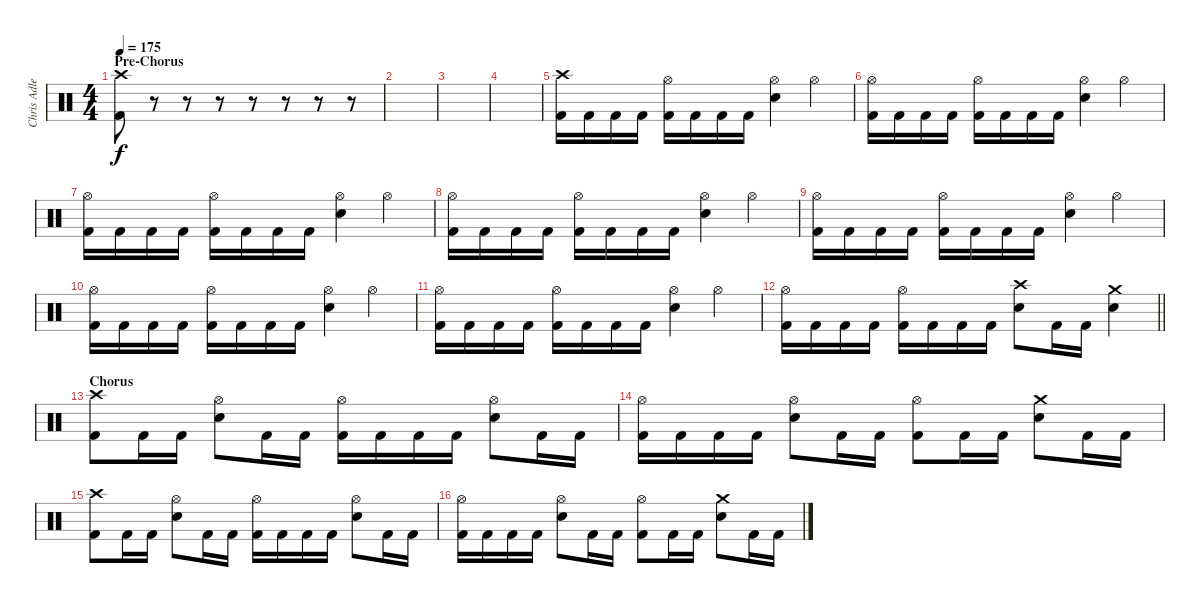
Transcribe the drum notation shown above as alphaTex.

\track ("Chris Adler" "Chris Adle") {instrument percussion}
\staff {score}
\articulation defaults
\ts (4 4)
\section ("" "Pre-Chorus")
\tempo 175
\clef neutral
\ks c
("Crash high (hit)" "Kick (hit) 2").8{dy f} r.8 r.8 r.8 r.8 r.8 r.8 r.8 |
|
|
|
("Crash high (hit)" "Kick (hit) 2").16 "Kick (hit) 2".16 "Kick (hit) 2".16 "Kick (hit) 2".16 ("Hi-Hat (open)" "Kick (hit) 2").16 "Kick (hit) 2".16 "Kick (hit) 2".16 "Kick (hit) 2".16 ("Hi-Hat (open)" "Electric Snare (hit)").4 "Hi-Hat (open)".4 |
("Hi-Hat (open)" "Kick (hit) 2").16 "Kick (hit) 2".16 "Kick (hit) 2".16 "Kick (hit) 2".16 ("Hi-Hat (open)" "Kick (hit) 2").16 "Kick (hit) 2".16 "Kick (hit) 2".16 "Kick (hit) 2".16 ("Hi-Hat (open)" "Electric Snare (hit)").4 "Hi-Hat (open)".4 |
("Hi-Hat (open)" "Kick (hit) 2").16 "Kick (hit) 2".16 "Kick (hit) 2".16 "Kick (hit) 2".16 ("Hi-Hat (open)" "Kick (hit) 2").16 "Kick (hit) 2".16 "Kick (hit) 2".16 "Kick (hit) 2".16 ("Hi-Hat (open)" "Electric Snare (hit)").4 "Hi-Hat (open)".4 |
("Hi-Hat (open)" "Kick (hit) 2").16 "Kick (hit) 2".16 "Kick (hit) 2".16 "Kick (hit) 2".16 ("Hi-Hat (open)" "Kick (hit) 2").16 "Kick (hit) 2".16 "Kick (hit) 2".16 "Kick (hit) 2".16 ("Hi-Hat (open)" "Electric Snare (hit)").4 "Hi-Hat (open)".4 |
("Hi-Hat (open)" "Kick (hit) 2").16 "Kick (hit) 2".16 "Kick (hit) 2".16 "Kick (hit) 2".16 ("Hi-Hat (open)" "Kick (hit) 2").16 "Kick (hit) 2".16 "Kick (hit) 2".16 "Kick (hit) 2".16 ("Hi-Hat (open)" "Electric Snare (hit)").4 "Hi-Hat (open)".4 |
("Hi-Hat (open)" "Kick (hit) 2").16 "Kick (hit) 2".16 "Kick (hit) 2".16 "Kick (hit) 2".16 ("Hi-Hat (open)" "Kick (hit) 2").16 "Kick (hit) 2".16 "Kick (hit) 2".16 "Kick (hit) 2".16 ("Hi-Hat (open)" "Electric Snare (hit)").4 "Hi-Hat (open)".4 |
("Hi-Hat (open)" "Kick (hit) 2").16 "Kick (hit) 2".16 "Kick (hit) 2".16 "Kick (hit) 2".16 ("Hi-Hat (open)" "Kick (hit) 2").16 "Kick (hit) 2".16 "Kick (hit) 2".16 "Kick (hit) 2".16 ("Hi-Hat (open)" "Electric Snare (hit)").4 "Hi-Hat (open)".4 |
\barLineRight lightlight
("Hi-Hat (open)" "Kick (hit) 2").16 "Kick (hit) 2".16 "Kick (hit) 2".16 "Kick (hit) 2".16 ("Hi-Hat (open)" "Kick (hit) 2").16 "Kick (hit) 2".16 "Kick (hit) 2".16 "Kick (hit) 2".16 ("Crash high (hit)" "Electric Snare (hit)").8 "Kick (hit) 2".16 "Kick (hit) 2".16 ("Crash medium (hit)" "Electric Snare (hit)").4 |
\section ("" "Chorus")
("Crash high (hit)" "Kick (hit) 2").8 "Kick (hit) 2".16 "Kick (hit) 2".16 ("Hi-Hat (open)" "Electric Snare (hit)").8 "Kick (hit) 2".16 "Kick (hit) 2".16 ("Hi-Hat (open)" "Kick (hit) 2").16 "Kick (hit) 2".16 "Kick (hit) 2".16 "Kick (hit) 2".16 ("Hi-Hat (open)" "Electric Snare (hit)").8 "Kick (hit) 2".16 "Kick (hit) 2".16 |
("Hi-Hat (open)" "Kick (hit) 2").16 "Kick (hit) 2".16 "Kick (hit) 2".16 "Kick (hit) 2".16 ("Hi-Hat (open)" "Electric Snare (hit)").8 "Kick (hit) 2".16 "Kick (hit) 2".16 ("Hi-Hat (open)" "Kick (hit) 2").8 "Kick (hit) 2".16 "Kick (hit) 2".16 ("Crash medium (hit)" "Electric Snare (hit)").8 "Kick (hit) 2".16 "Kick (hit) 2".16 |
("Crash high (hit)" "Kick (hit) 2").8 "Kick (hit) 2".16 "Kick (hit) 2".16 ("Hi-Hat (open)" "Electric Snare (hit)").8 "Kick (hit) 2".16 "Kick (hit) 2".16 ("Hi-Hat (open)" "Kick (hit) 2").16 "Kick (hit) 2".16 "Kick (hit) 2".16 "Kick (hit) 2".16 ("Hi-Hat (open)" "Electric Snare (hit)").8 "Kick (hit) 2".16 "Kick (hit) 2".16 |
("Hi-Hat (open)" "Kick (hit) 2").16 "Kick (hit) 2".16 "Kick (hit) 2".16 "Kick (hit) 2".16 ("Hi-Hat (open)" "Electric Snare (hit)").8 "Kick (hit) 2".16 "Kick (hit) 2".16 ("Hi-Hat (open)" "Kick (hit) 2").8 "Kick (hit) 2".16 "Kick (hit) 2".16 ("Crash medium (hit)" "Electric Snare (hit)").8 "Kick (hit) 2".16 "Kick (hit) 2".16
